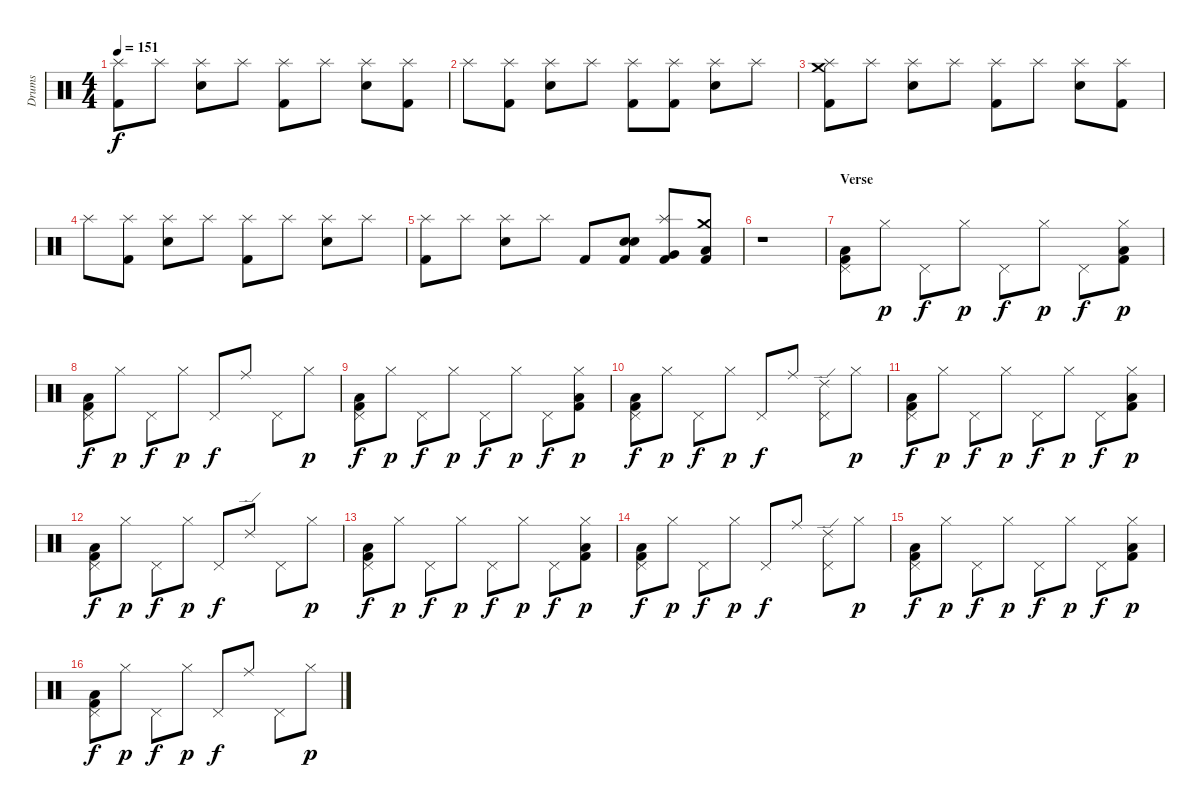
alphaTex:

\track ("Drums" "Drums") {instrument percussion}
\staff {score}
\articulation defaults
\ts (4 4)
\tempo 151
\clef neutral
\ks c
("Kick (hit) 2" "Splash (hit)").8{dy f} "Splash (hit)".8 ("Splash (hit)" "Electric Snare (hit)").8 "Splash (hit)".8 ("Kick (hit) 2" "Splash (hit)").8 "Splash (hit)".8 ("Splash (hit)" "Electric Snare (hit)").8 ("Kick (hit) 2" "Splash (hit)").8 |
"Splash (hit)".8 ("Kick (hit) 2" "Splash (hit)").8 ("Splash (hit)" "Electric Snare (hit)").8 "Splash (hit)".8 ("Kick (hit) 2" "Splash (hit)").8 ("Kick (hit) 2" "Splash (hit)").8 ("Splash (hit)" "Electric Snare (hit)").8 "Splash (hit)".8 |
("Kick (hit) 2" "Splash (hit)" "Crash medium (hit)").8 "Splash (hit)".8 ("Splash (hit)" "Electric Snare (hit)").8 "Splash (hit)".8 ("Kick (hit) 2" "Splash (hit)").8 "Splash (hit)".8 ("Splash (hit)" "Electric Snare (hit)").8 ("Kick (hit) 2" "Splash (hit)").8 |
"Splash (hit)".8 ("Kick (hit) 2" "Splash (hit)").8 ("Splash (hit)" "Electric Snare (hit)").8 "Splash (hit)".8 ("Kick (hit) 2" "Splash (hit)").8 "Splash (hit)".8 ("Splash (hit)" "Electric Snare (hit)").8 "Splash (hit)".8 |
("Kick (hit) 2" "Splash (hit)").8 "Splash (hit)".8 ("Splash (hit)" "Electric Snare (hit)").8 "Splash (hit)".8 "Kick (hit) 2".8 ("Kick (hit) 2" "Snare (hit) 2" "Electric Snare (hit)").8 ("Kick (hit) 2" "Very Low Tom (hit)" "Splash (hit)").8 ("Low Floor Tom (hit)" "Crash medium (hit)" "Kick (hit) 2").8 |
r.1 |
\section ("" "Verse")
("Kick (hit) 2" "Low Floor Tom (hit)" "Pedal Hi-Hat (hit)").8{volume 16} "Hi-Hat (closed)".8{dy p} "Pedal Hi-Hat (hit)".8{dy f} "Hi-Hat (closed)".8{dy p} "Pedal Hi-Hat (hit)".8{dy f} "Hi-Hat (closed)".8{dy p} "Pedal Hi-Hat (hit)".8{dy f} ("Kick (hit) 2" "Low Floor Tom (hit)" "Hi-Hat (closed)").8{dy p volume 16} |
("Kick (hit) 2" "Low Floor Tom (hit)" "Pedal Hi-Hat (hit)").8{dy f volume 16} "Hi-Hat (closed)".8{dy p} "Pedal Hi-Hat (hit)".8{dy f} "Hi-Hat (closed)".8{dy p} "Pedal Hi-Hat (hit)".8{dy f} "Ride (middle)".8 "Pedal Hi-Hat (hit)".8 "Hi-Hat (closed)".8{dy p} |
("Kick (hit) 2" "Low Floor Tom (hit)" "Pedal Hi-Hat (hit)").8{dy f volume 16} "Hi-Hat (closed)".8{dy p} "Pedal Hi-Hat (hit)".8{dy f} "Hi-Hat (closed)".8{dy p} "Pedal Hi-Hat (hit)".8{dy f} "Hi-Hat (closed)".8{dy p} "Pedal Hi-Hat (hit)".8{dy f} ("Kick (hit) 2" "Low Floor Tom (hit)" "Hi-Hat (closed)").8{dy p volume 16} |
("Kick (hit) 2" "Low Floor Tom (hit)" "Pedal Hi-Hat (hit)").8{dy f volume 16} "Hi-Hat (closed)".8{dy p} "Pedal Hi-Hat (hit)".8{dy f} "Hi-Hat (closed)".8{dy p} "Pedal Hi-Hat (hit)".8{dy f} "Ride (middle)".8 ("Ride (edge) 2" "Pedal Hi-Hat (hit)").8 "Hi-Hat (closed)".8{dy p} |
("Kick (hit) 2" "Low Floor Tom (hit)" "Pedal Hi-Hat (hit)").8{dy f volume 16} "Hi-Hat (closed)".8{dy p} "Pedal Hi-Hat (hit)".8{dy f} "Hi-Hat (closed)".8{dy p} "Pedal Hi-Hat (hit)".8{dy f} "Hi-Hat (closed)".8{dy p} "Pedal Hi-Hat (hit)".8{dy f} ("Kick (hit) 2" "Low Floor Tom (hit)" "Hi-Hat (closed)").8{dy p volume 16} |
("Kick (hit) 2" "Low Floor Tom (hit)" "Pedal Hi-Hat (hit)").8{dy f volume 16} "Hi-Hat (closed)".8{dy p} "Pedal Hi-Hat (hit)".8{dy f} "Hi-Hat (closed)".8{dy p} "Pedal Hi-Hat (hit)".8{dy f} "Ride (edge) 2".8 "Pedal Hi-Hat (hit)".8 "Hi-Hat (closed)".8{dy p} |
("Kick (hit) 2" "Low Floor Tom (hit)" "Pedal Hi-Hat (hit)").8{dy f volume 16} "Hi-Hat (closed)".8{dy p} "Pedal Hi-Hat (hit)".8{dy f} "Hi-Hat (closed)".8{dy p} "Pedal Hi-Hat (hit)".8{dy f} "Hi-Hat (closed)".8{dy p} "Pedal Hi-Hat (hit)".8{dy f} ("Kick (hit) 2" "Low Floor Tom (hit)" "Hi-Hat (closed)").8{dy p volume 16} |
("Kick (hit) 2" "Low Floor Tom (hit)" "Pedal Hi-Hat (hit)").8{dy f volume 16} "Hi-Hat (closed)".8{dy p} "Pedal Hi-Hat (hit)".8{dy f} "Hi-Hat (closed)".8{dy p} "Pedal Hi-Hat (hit)".8{dy f} "Ride (middle)".8 ("Ride (edge) 2" "Pedal Hi-Hat (hit)").8 "Hi-Hat (closed)".8{dy p} |
("Kick (hit) 2" "Low Floor Tom (hit)" "Pedal Hi-Hat (hit)").8{dy f volume 16} "Hi-Hat (closed)".8{dy p} "Pedal Hi-Hat (hit)".8{dy f} "Hi-Hat (closed)".8{dy p} "Pedal Hi-Hat (hit)".8{dy f} "Hi-Hat (closed)".8{dy p} "Pedal Hi-Hat (hit)".8{dy f} ("Kick (hit) 2" "Low Floor Tom (hit)" "Hi-Hat (closed)").8{dy p volume 16} |
("Kick (hit) 2" "Low Floor Tom (hit)" "Pedal Hi-Hat (hit)").8{dy f volume 16} "Hi-Hat (closed)".8{dy p} "Pedal Hi-Hat (hit)".8{dy f} "Hi-Hat (closed)".8{dy p} "Pedal Hi-Hat (hit)".8{dy f} "Ride (middle)".8 "Pedal Hi-Hat (hit)".8 "Hi-Hat (closed)".8{dy p}
